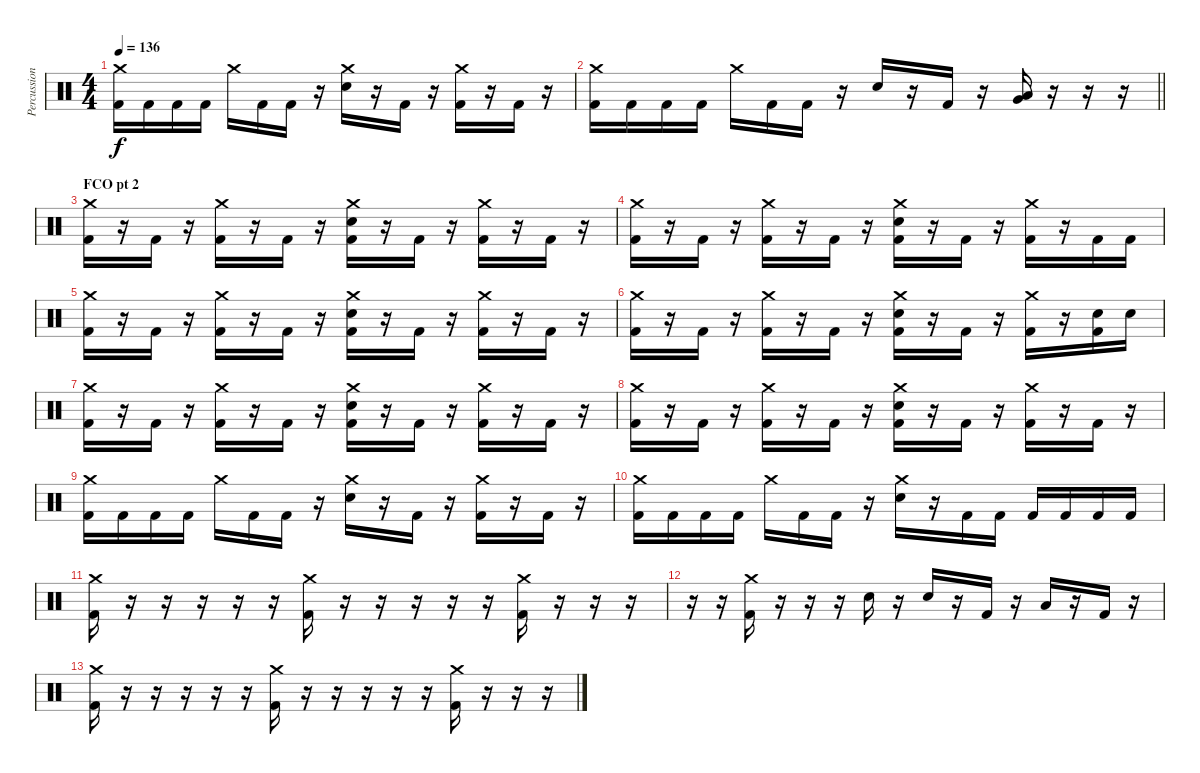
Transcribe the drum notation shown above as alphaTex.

\track ("Percussion" "Percussion") {instrument percussion}
\staff {score}
\articulation defaults
\ts (4 4)
\tempo 136
\clef neutral
\ks c
("Crash medium (hit)" "Kick (hit) 2").16{dy f} "Kick (hit) 2".16 "Kick (hit) 2".16 "Kick (hit) 2".16 "Crash medium (hit)".16 "Kick (hit) 2".16 "Kick (hit) 2".16 r.16 ("Crash medium (hit)" "Electric Snare (hit)").16 r.16 "Kick (hit) 2".16 r.16 ("Crash medium (hit)" "Kick (hit) 2").16 r.16 "Kick (hit) 2".16 r.16 |
\barLineRight lightlight
("Crash medium (hit)" "Kick (hit) 2").16 "Kick (hit) 2".16 "Kick (hit) 2".16 "Kick (hit) 2".16 "Crash medium (hit)".16 "Kick (hit) 2".16 "Kick (hit) 2".16 r.16 "Electric Snare (hit)".16 r.16 "Kick (hit) 2".16 r.16 ("Very Low Tom (hit)" "Low Floor Tom (hit)").16 r.16 r.16 r.16 |
\section ("" "FCO pt 2")
("Crash medium (hit)" "Kick (hit) 2").16 r.16 "Kick (hit) 2".16 r.16 ("Crash medium (hit)" "Kick (hit) 2").16 r.16 "Kick (hit) 2".16 r.16 ("Crash medium (hit)" "Electric Snare (hit)" "Kick (hit) 2").16 r.16 "Kick (hit) 2".16 r.16 ("Crash medium (hit)" "Kick (hit) 2").16 r.16 "Kick (hit) 2".16 r.16 |
("Crash medium (hit)" "Kick (hit) 2").16 r.16 "Kick (hit) 2".16 r.16 ("Crash medium (hit)" "Kick (hit) 2").16 r.16 "Kick (hit) 2".16 r.16 ("Crash medium (hit)" "Electric Snare (hit)" "Kick (hit) 2").16 r.16 "Kick (hit) 2".16 r.16 ("Crash medium (hit)" "Kick (hit) 2").16 r.16 "Kick (hit) 2".16 "Kick (hit) 2".16 |
("Crash medium (hit)" "Kick (hit) 2").16 r.16 "Kick (hit) 2".16 r.16 ("Crash medium (hit)" "Kick (hit) 2").16 r.16 "Kick (hit) 2".16 r.16 ("Crash medium (hit)" "Electric Snare (hit)" "Kick (hit) 2").16 r.16 "Kick (hit) 2".16 r.16 ("Crash medium (hit)" "Kick (hit) 2").16 r.16 "Kick (hit) 2".16 r.16 |
("Crash medium (hit)" "Kick (hit) 2").16 r.16 "Kick (hit) 2".16 r.16 ("Crash medium (hit)" "Kick (hit) 2").16 r.16 "Kick (hit) 2".16 r.16 ("Crash medium (hit)" "Electric Snare (hit)" "Kick (hit) 2").16 r.16 "Kick (hit) 2".16 r.16 ("Crash medium (hit)" "Kick (hit) 2").16 r.16 ("Electric Snare (hit)" "Kick (hit) 2").16 "Electric Snare (hit)".16 |
("Crash medium (hit)" "Kick (hit) 2").16 r.16 "Kick (hit) 2".16 r.16 ("Crash medium (hit)" "Kick (hit) 2").16 r.16 "Kick (hit) 2".16 r.16 ("Crash medium (hit)" "Electric Snare (hit)" "Kick (hit) 2").16 r.16 "Kick (hit) 2".16 r.16 ("Crash medium (hit)" "Kick (hit) 2").16 r.16 "Kick (hit) 2".16 r.16 |
("Crash medium (hit)" "Kick (hit) 2").16 r.16 "Kick (hit) 2".16 r.16 ("Crash medium (hit)" "Kick (hit) 2").16 r.16 "Kick (hit) 2".16 r.16 ("Crash medium (hit)" "Electric Snare (hit)" "Kick (hit) 2").16 r.16 "Kick (hit) 2".16 r.16 ("Crash medium (hit)" "Kick (hit) 2").16 r.16 "Kick (hit) 2".16 r.16 |
("Crash medium (hit)" "Kick (hit) 2").16 "Kick (hit) 2".16 "Kick (hit) 2".16 "Kick (hit) 2".16 "Crash medium (hit)".16 "Kick (hit) 2".16 "Kick (hit) 2".16 r.16 ("Crash medium (hit)" "Electric Snare (hit)").16 r.16 "Kick (hit) 2".16 r.16 ("Crash medium (hit)" "Kick (hit) 2").16 r.16 "Kick (hit) 2".16 r.16 |
("Crash medium (hit)" "Kick (hit) 2").16 "Kick (hit) 2".16 "Kick (hit) 2".16 "Kick (hit) 2".16 "Crash medium (hit)".16 "Kick (hit) 2".16 "Kick (hit) 2".16 r.16 ("Crash medium (hit)" "Electric Snare (hit)").16 r.16 "Kick (hit) 2".16 "Kick (hit) 2".16 "Kick (hit) 2".16 "Kick (hit) 2".16 "Kick (hit) 2".16 "Kick (hit) 2".16 |
("Crash medium (hit)" "Kick (hit) 2").16 r.16 r.16 r.16 r.16 r.16 ("Crash medium (hit)" "Kick (hit) 2").16 r.16 r.16 r.16 r.16 r.16 ("Crash medium (hit)" "Kick (hit) 2").16 r.16 r.16 r.16 |
r.16 r.16 ("Crash medium (hit)" "Kick (hit) 2").16 r.16 r.16 r.16 "Electric Snare (hit)".16 r.16 "Electric Snare (hit)".16 r.16 "Kick (hit) 2".16 r.16 "Low Floor Tom (hit)".16 r.16 "Kick (hit) 2".16 r.16 |
("Crash medium (hit)" "Kick (hit) 2").16 r.16 r.16 r.16 r.16 r.16 ("Crash medium (hit)" "Kick (hit) 2").16 r.16 r.16 r.16 r.16 r.16 ("Crash medium (hit)" "Kick (hit) 2").16 r.16 r.16 r.16
